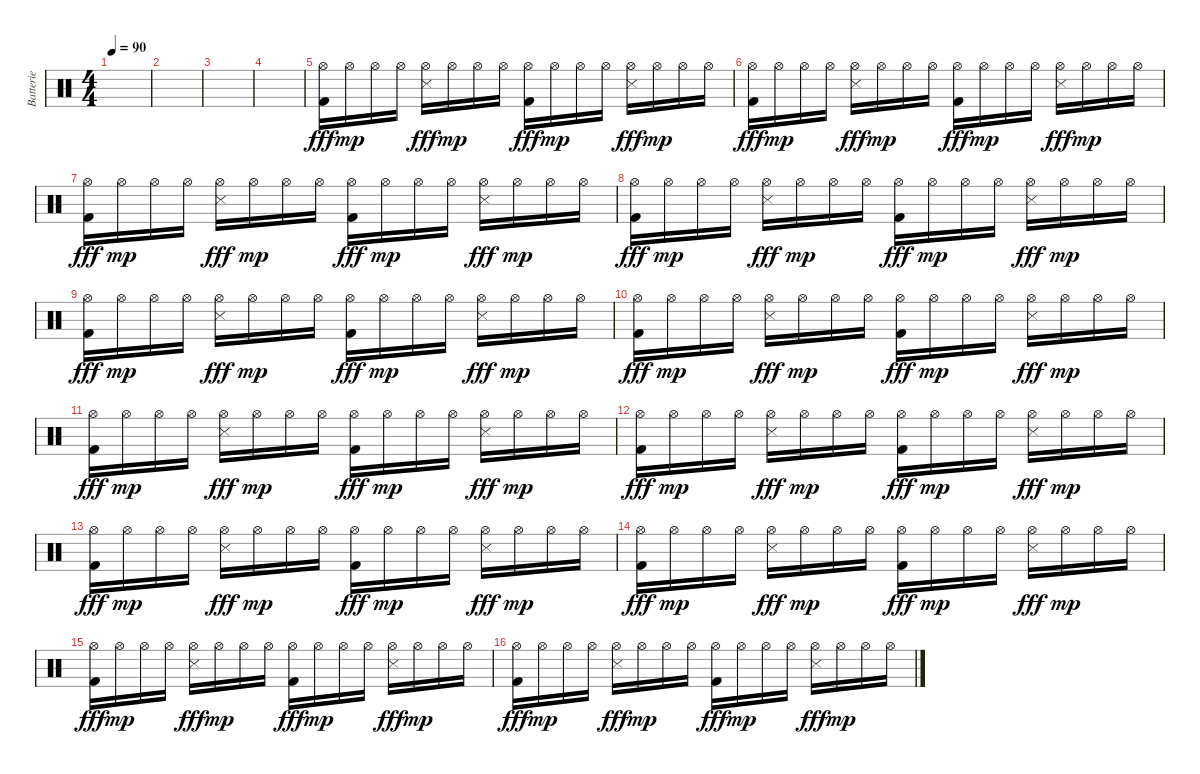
\track ("Batterie" "Batterie") {instrument percussion}
\staff {score}
\articulation defaults
\ts (4 4)
\tempo 90
\clef neutral
\ks c
|
|
|
|
("Hi-Hat (open)" "Kick (hit) 2").16{dy fff} "Hi-Hat (open)".16{dy mp} "Hi-Hat (open)".16 "Hi-Hat (open)".16 ("Hi-Hat (open)" "Snare (side stick) 3").16{dy fff} "Hi-Hat (open)".16{dy mp} "Hi-Hat (open)".16 "Hi-Hat (open)".16 ("Hi-Hat (open)" "Kick (hit) 2").16{dy fff} "Hi-Hat (open)".16{dy mp} "Hi-Hat (open)".16 "Hi-Hat (open)".16 ("Hi-Hat (open)" "Snare (side stick) 3").16{dy fff} "Hi-Hat (open)".16{dy mp} "Hi-Hat (open)".16 "Hi-Hat (open)".16 |
("Hi-Hat (open)" "Kick (hit) 2").16{dy fff} "Hi-Hat (open)".16{dy mp} "Hi-Hat (open)".16 "Hi-Hat (open)".16 ("Hi-Hat (open)" "Snare (side stick) 3").16{dy fff} "Hi-Hat (open)".16{dy mp} "Hi-Hat (open)".16 "Hi-Hat (open)".16 ("Hi-Hat (open)" "Kick (hit) 2").16{dy fff} "Hi-Hat (open)".16{dy mp} "Hi-Hat (open)".16 "Hi-Hat (open)".16 ("Hi-Hat (open)" "Snare (side stick) 3").16{dy fff} "Hi-Hat (open)".16{dy mp} "Hi-Hat (open)".16 "Hi-Hat (open)".16 |
("Hi-Hat (open)" "Kick (hit) 2").16{dy fff} "Hi-Hat (open)".16{dy mp} "Hi-Hat (open)".16 "Hi-Hat (open)".16 ("Hi-Hat (open)" "Snare (side stick) 3").16{dy fff} "Hi-Hat (open)".16{dy mp} "Hi-Hat (open)".16 "Hi-Hat (open)".16 ("Hi-Hat (open)" "Kick (hit) 2").16{dy fff} "Hi-Hat (open)".16{dy mp} "Hi-Hat (open)".16 "Hi-Hat (open)".16 ("Hi-Hat (open)" "Snare (side stick) 3").16{dy fff} "Hi-Hat (open)".16{dy mp} "Hi-Hat (open)".16 "Hi-Hat (open)".16 |
("Hi-Hat (open)" "Kick (hit) 2").16{dy fff} "Hi-Hat (open)".16{dy mp} "Hi-Hat (open)".16 "Hi-Hat (open)".16 ("Hi-Hat (open)" "Snare (side stick) 3").16{dy fff} "Hi-Hat (open)".16{dy mp} "Hi-Hat (open)".16 "Hi-Hat (open)".16 ("Hi-Hat (open)" "Kick (hit) 2").16{dy fff} "Hi-Hat (open)".16{dy mp} "Hi-Hat (open)".16 "Hi-Hat (open)".16 ("Hi-Hat (open)" "Snare (side stick) 3").16{dy fff} "Hi-Hat (open)".16{dy mp} "Hi-Hat (open)".16 "Hi-Hat (open)".16 |
("Hi-Hat (open)" "Kick (hit) 2").16{dy fff} "Hi-Hat (open)".16{dy mp} "Hi-Hat (open)".16 "Hi-Hat (open)".16 ("Hi-Hat (open)" "Snare (side stick) 3").16{dy fff} "Hi-Hat (open)".16{dy mp} "Hi-Hat (open)".16 "Hi-Hat (open)".16 ("Hi-Hat (open)" "Kick (hit) 2").16{dy fff} "Hi-Hat (open)".16{dy mp} "Hi-Hat (open)".16 "Hi-Hat (open)".16 ("Hi-Hat (open)" "Snare (side stick) 3").16{dy fff} "Hi-Hat (open)".16{dy mp} "Hi-Hat (open)".16 "Hi-Hat (open)".16 |
("Hi-Hat (open)" "Kick (hit) 2").16{dy fff} "Hi-Hat (open)".16{dy mp} "Hi-Hat (open)".16 "Hi-Hat (open)".16 ("Hi-Hat (open)" "Snare (side stick) 3").16{dy fff} "Hi-Hat (open)".16{dy mp} "Hi-Hat (open)".16 "Hi-Hat (open)".16 ("Hi-Hat (open)" "Kick (hit) 2").16{dy fff} "Hi-Hat (open)".16{dy mp} "Hi-Hat (open)".16 "Hi-Hat (open)".16 ("Hi-Hat (open)" "Snare (side stick) 3").16{dy fff} "Hi-Hat (open)".16{dy mp} "Hi-Hat (open)".16 "Hi-Hat (open)".16 |
("Hi-Hat (open)" "Kick (hit) 2").16{dy fff} "Hi-Hat (open)".16{dy mp} "Hi-Hat (open)".16 "Hi-Hat (open)".16 ("Hi-Hat (open)" "Snare (side stick) 3").16{dy fff} "Hi-Hat (open)".16{dy mp} "Hi-Hat (open)".16 "Hi-Hat (open)".16 ("Hi-Hat (open)" "Kick (hit) 2").16{dy fff} "Hi-Hat (open)".16{dy mp} "Hi-Hat (open)".16 "Hi-Hat (open)".16 ("Hi-Hat (open)" "Snare (side stick) 3").16{dy fff} "Hi-Hat (open)".16{dy mp} "Hi-Hat (open)".16 "Hi-Hat (open)".16 |
("Hi-Hat (open)" "Kick (hit) 2").16{dy fff} "Hi-Hat (open)".16{dy mp} "Hi-Hat (open)".16 "Hi-Hat (open)".16 ("Hi-Hat (open)" "Snare (side stick) 3").16{dy fff} "Hi-Hat (open)".16{dy mp} "Hi-Hat (open)".16 "Hi-Hat (open)".16 ("Hi-Hat (open)" "Kick (hit) 2").16{dy fff} "Hi-Hat (open)".16{dy mp} "Hi-Hat (open)".16 "Hi-Hat (open)".16 ("Hi-Hat (open)" "Snare (side stick) 3").16{dy fff} "Hi-Hat (open)".16{dy mp} "Hi-Hat (open)".16 "Hi-Hat (open)".16 |
("Hi-Hat (open)" "Kick (hit) 2").16{dy fff} "Hi-Hat (open)".16{dy mp} "Hi-Hat (open)".16 "Hi-Hat (open)".16 ("Hi-Hat (open)" "Snare (side stick) 3").16{dy fff} "Hi-Hat (open)".16{dy mp} "Hi-Hat (open)".16 "Hi-Hat (open)".16 ("Hi-Hat (open)" "Kick (hit) 2").16{dy fff} "Hi-Hat (open)".16{dy mp} "Hi-Hat (open)".16 "Hi-Hat (open)".16 ("Hi-Hat (open)" "Snare (side stick) 3").16{dy fff} "Hi-Hat (open)".16{dy mp} "Hi-Hat (open)".16 "Hi-Hat (open)".16 |
("Hi-Hat (open)" "Kick (hit) 2").16{dy fff} "Hi-Hat (open)".16{dy mp} "Hi-Hat (open)".16 "Hi-Hat (open)".16 ("Hi-Hat (open)" "Snare (side stick) 3").16{dy fff} "Hi-Hat (open)".16{dy mp} "Hi-Hat (open)".16 "Hi-Hat (open)".16 ("Hi-Hat (open)" "Kick (hit) 2").16{dy fff} "Hi-Hat (open)".16{dy mp} "Hi-Hat (open)".16 "Hi-Hat (open)".16 ("Hi-Hat (open)" "Snare (side stick) 3").16{dy fff} "Hi-Hat (open)".16{dy mp} "Hi-Hat (open)".16 "Hi-Hat (open)".16 |
("Hi-Hat (open)" "Kick (hit) 2").16{dy fff} "Hi-Hat (open)".16{dy mp} "Hi-Hat (open)".16 "Hi-Hat (open)".16 ("Hi-Hat (open)" "Snare (side stick) 3").16{dy fff} "Hi-Hat (open)".16{dy mp} "Hi-Hat (open)".16 "Hi-Hat (open)".16 ("Hi-Hat (open)" "Kick (hit) 2").16{dy fff} "Hi-Hat (open)".16{dy mp} "Hi-Hat (open)".16 "Hi-Hat (open)".16 ("Hi-Hat (open)" "Snare (side stick) 3").16{dy fff} "Hi-Hat (open)".16{dy mp} "Hi-Hat (open)".16 "Hi-Hat (open)".16 |
("Hi-Hat (open)" "Kick (hit) 2").16{dy fff} "Hi-Hat (open)".16{dy mp} "Hi-Hat (open)".16 "Hi-Hat (open)".16 ("Hi-Hat (open)" "Snare (side stick) 3").16{dy fff} "Hi-Hat (open)".16{dy mp} "Hi-Hat (open)".16 "Hi-Hat (open)".16 ("Hi-Hat (open)" "Kick (hit) 2").16{dy fff} "Hi-Hat (open)".16{dy mp} "Hi-Hat (open)".16 "Hi-Hat (open)".16 ("Hi-Hat (open)" "Snare (side stick) 3").16{dy fff} "Hi-Hat (open)".16{dy mp} "Hi-Hat (open)".16 "Hi-Hat (open)".16
